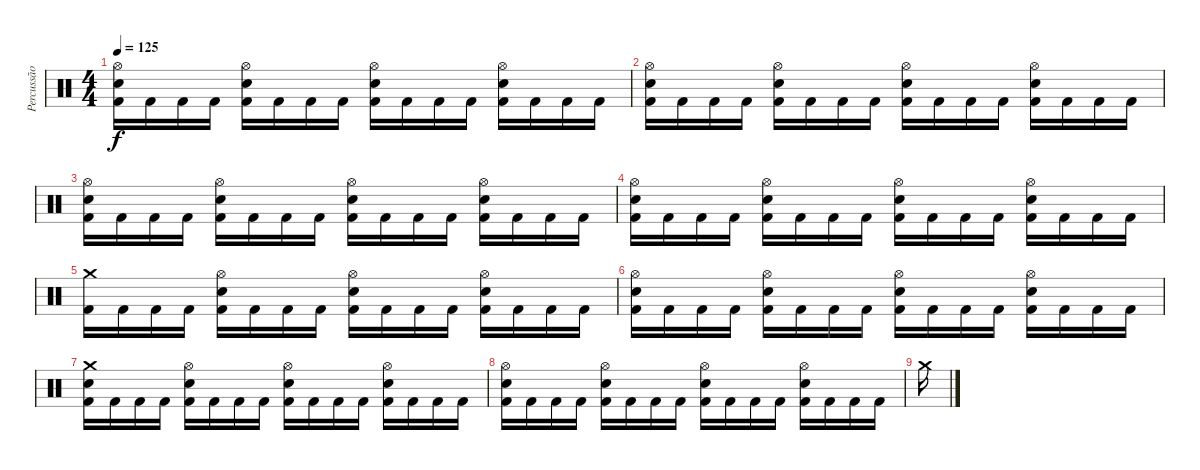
\track ("Percussão" "Percussão") {instrument percussion}
\staff {score}
\articulation defaults
\ts (4 4)
\tempo 125
\clef neutral
\ks c
("Hi-Hat (open)" "Electric Snare (hit)" "Kick (hit) 2").16{dy f} "Kick (hit) 2".16 "Kick (hit) 2".16 "Kick (hit) 2".16 ("Hi-Hat (open)" "Electric Snare (hit)" "Kick (hit) 2").16 "Kick (hit) 2".16 "Kick (hit) 2".16 "Kick (hit) 2".16 ("Hi-Hat (open)" "Electric Snare (hit)" "Kick (hit) 2").16 "Kick (hit) 2".16 "Kick (hit) 2".16 "Kick (hit) 2".16 ("Hi-Hat (open)" "Electric Snare (hit)" "Kick (hit) 2").16 "Kick (hit) 2".16 "Kick (hit) 2".16 "Kick (hit) 2".16 |
("Hi-Hat (open)" "Electric Snare (hit)" "Kick (hit) 2").16 "Kick (hit) 2".16 "Kick (hit) 2".16 "Kick (hit) 2".16 ("Hi-Hat (open)" "Electric Snare (hit)" "Kick (hit) 2").16 "Kick (hit) 2".16 "Kick (hit) 2".16 "Kick (hit) 2".16 ("Hi-Hat (open)" "Electric Snare (hit)" "Kick (hit) 2").16 "Kick (hit) 2".16 "Kick (hit) 2".16 "Kick (hit) 2".16 ("Hi-Hat (open)" "Electric Snare (hit)" "Kick (hit) 2").16 "Kick (hit) 2".16 "Kick (hit) 2".16 "Kick (hit) 2".16 |
("Hi-Hat (open)" "Electric Snare (hit)" "Kick (hit) 2").16 "Kick (hit) 2".16 "Kick (hit) 2".16 "Kick (hit) 2".16 ("Hi-Hat (open)" "Electric Snare (hit)" "Kick (hit) 2").16 "Kick (hit) 2".16 "Kick (hit) 2".16 "Kick (hit) 2".16 ("Hi-Hat (open)" "Electric Snare (hit)" "Kick (hit) 2").16 "Kick (hit) 2".16 "Kick (hit) 2".16 "Kick (hit) 2".16 ("Hi-Hat (open)" "Electric Snare (hit)" "Kick (hit) 2").16 "Kick (hit) 2".16 "Kick (hit) 2".16 "Kick (hit) 2".16 |
("Hi-Hat (open)" "Electric Snare (hit)" "Kick (hit) 2").16 "Kick (hit) 2".16 "Kick (hit) 2".16 "Kick (hit) 2".16 ("Hi-Hat (open)" "Electric Snare (hit)" "Kick (hit) 2").16 "Kick (hit) 2".16 "Kick (hit) 2".16 "Kick (hit) 2".16 ("Hi-Hat (open)" "Electric Snare (hit)" "Kick (hit) 2").16 "Kick (hit) 2".16 "Kick (hit) 2".16 "Kick (hit) 2".16 ("Hi-Hat (open)" "Electric Snare (hit)" "Kick (hit) 2").16 "Kick (hit) 2".16 "Kick (hit) 2".16 "Kick (hit) 2".16 |
("Crash medium (hit)" "Kick (hit) 2").16 "Kick (hit) 2".16 "Kick (hit) 2".16 "Kick (hit) 2".16 ("Hi-Hat (open)" "Electric Snare (hit)" "Kick (hit) 2").16 "Kick (hit) 2".16 "Kick (hit) 2".16 "Kick (hit) 2".16 ("Hi-Hat (open)" "Electric Snare (hit)" "Kick (hit) 2").16 "Kick (hit) 2".16 "Kick (hit) 2".16 "Kick (hit) 2".16 ("Hi-Hat (open)" "Electric Snare (hit)" "Kick (hit) 2").16 "Kick (hit) 2".16 "Kick (hit) 2".16 "Kick (hit) 2".16 |
("Hi-Hat (open)" "Electric Snare (hit)" "Kick (hit) 2").16 "Kick (hit) 2".16 "Kick (hit) 2".16 "Kick (hit) 2".16 ("Hi-Hat (open)" "Electric Snare (hit)" "Kick (hit) 2").16 "Kick (hit) 2".16 "Kick (hit) 2".16 "Kick (hit) 2".16 ("Hi-Hat (open)" "Electric Snare (hit)" "Kick (hit) 2").16 "Kick (hit) 2".16 "Kick (hit) 2".16 "Kick (hit) 2".16 ("Hi-Hat (open)" "Electric Snare (hit)" "Kick (hit) 2").16 "Kick (hit) 2".16 "Kick (hit) 2".16 "Kick (hit) 2".16 |
("Crash medium (hit)" "Electric Snare (hit)" "Kick (hit) 2").16 "Kick (hit) 2".16 "Kick (hit) 2".16 "Kick (hit) 2".16 ("Hi-Hat (open)" "Electric Snare (hit)" "Kick (hit) 2").16 "Kick (hit) 2".16 "Kick (hit) 2".16 "Kick (hit) 2".16 ("Hi-Hat (open)" "Electric Snare (hit)" "Kick (hit) 2").16 "Kick (hit) 2".16 "Kick (hit) 2".16 "Kick (hit) 2".16 ("Hi-Hat (open)" "Electric Snare (hit)" "Kick (hit) 2").16 "Kick (hit) 2".16 "Kick (hit) 2".16 "Kick (hit) 2".16 |
("Hi-Hat (open)" "Electric Snare (hit)" "Kick (hit) 2").16 "Kick (hit) 2".16 "Kick (hit) 2".16 "Kick (hit) 2".16 ("Hi-Hat (open)" "Electric Snare (hit)" "Kick (hit) 2").16 "Kick (hit) 2".16 "Kick (hit) 2".16 "Kick (hit) 2".16 ("Hi-Hat (open)" "Electric Snare (hit)" "Kick (hit) 2").16 "Kick (hit) 2".16 "Kick (hit) 2".16 "Kick (hit) 2".16 ("Hi-Hat (open)" "Electric Snare (hit)" "Kick (hit) 2").16 "Kick (hit) 2".16 "Kick (hit) 2".16 "Kick (hit) 2".16 |
"Crash medium (hit)".16
